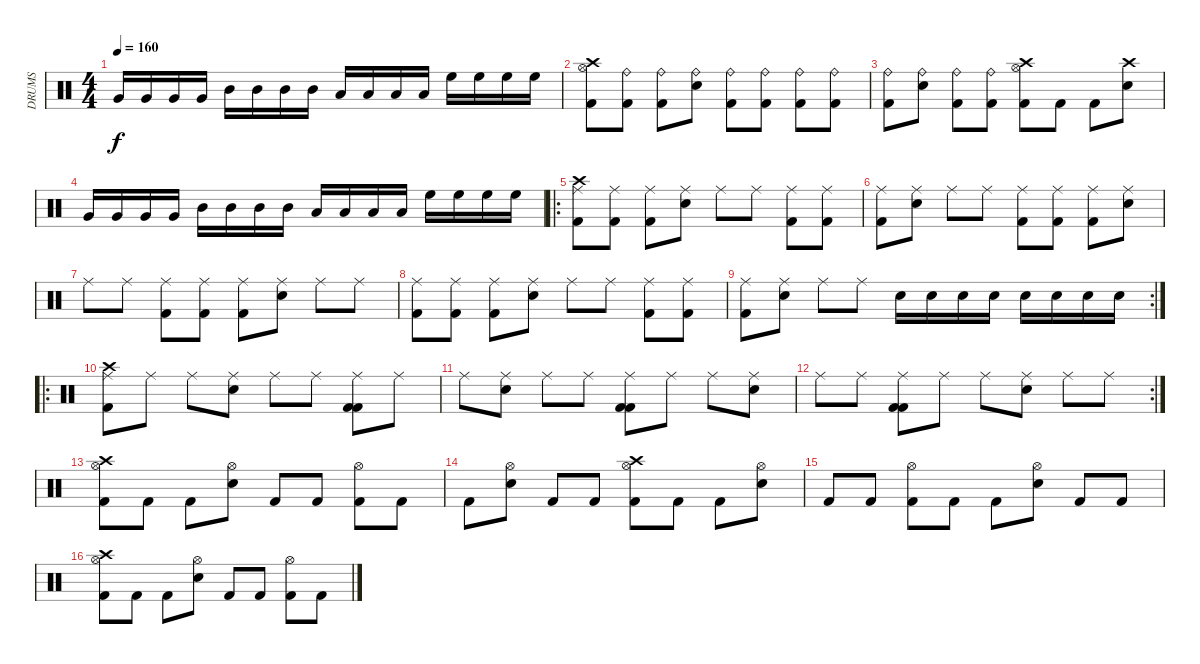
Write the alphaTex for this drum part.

\track ("DRUMS" "DRUMS") {instrument percussion}
\staff {score}
\articulation defaults
\ts (4 4)
\tempo 160
\clef neutral
\ks c "Very Low Tom (hit)".16{dy f} "Very Low Tom (hit)".16 "Very Low Tom (hit)".16 "Very Low Tom (hit)".16 "Mid Tom (hit)".16 "Mid Tom (hit)".16 "Mid Tom (hit)".16 "Mid Tom (hit)".16 "Low Tom (hit)".16 "Low Tom (hit)".16 "Low Tom (hit)".16 "Low Tom (hit)".16 "High Floor Tom (hit)".16 "High Floor Tom (hit)".16 "High Floor Tom (hit)".16 "High Floor Tom (hit)".16
|
("Crash high (hit)" "Kick (hit) 2" "Hi-Hat (open)").8 ("Ride (bell)" "Kick (hit) 2").8 ("Ride (bell)" "Kick (hit) 2").8 ("Ride (bell)" "Snare (hit) 2").8 ("Ride (bell)" "Kick (hit) 2").8 ("Ride (bell)" "Kick (hit) 2").8 ("Ride (bell)" "Kick (hit) 2").8 ("Ride (bell)" "Kick (hit) 2").8 |
("Ride (bell)" "Kick (hit) 2").8 ("Ride (bell)" "Snare (hit) 2").8 ("Ride (bell)" "Kick (hit) 2").8 ("Ride (bell)" "Kick (hit) 2").8 ("Crash high (hit)" "Hi-Hat (open)" "Kick (hit) 2").8 "Kick (hit) 2".8 "Kick (hit) 2".8 ("Crash high (hit)" "Snare (hit) 2").8 |
"Very Low Tom (hit)".16 "Very Low Tom (hit)".16 "Very Low Tom (hit)".16 "Very Low Tom (hit)".16 "Mid Tom (hit)".16 "Mid Tom (hit)".16 "Mid Tom (hit)".16 "Mid Tom (hit)".16 "Low Tom (hit)".16 "Low Tom (hit)".16 "Low Tom (hit)".16 "Low Tom (hit)".16 "High Floor Tom (hit)".16 "High Floor Tom (hit)".16 "High Floor Tom (hit)".16 "High Floor Tom (hit)".16 |
\ro
("Crash high (hit)" "Kick (hit) 2" "Ride (middle)").8 ("Kick (hit) 2" "Ride (middle)").8 ("Kick (hit) 2" "Ride (middle)").8 ("Snare (hit) 2" "Ride (middle)").8 "Ride (middle)".8 "Ride (middle)".8 ("Kick (hit) 2" "Ride (middle)").8 ("Kick (hit) 2" "Ride (middle)").8 |
("Kick (hit) 2" "Ride (middle)").8 ("Snare (hit) 2" "Ride (middle)").8 "Ride (middle)".8 "Ride (middle)".8 ("Kick (hit) 2" "Ride (middle)").8 ("Kick (hit) 2" "Ride (middle)").8 ("Kick (hit) 2" "Ride (middle)").8 ("Snare (hit) 2" "Ride (middle)").8 |
"Ride (middle)".8 "Ride (middle)".8 ("Kick (hit) 2" "Ride (middle)").8 ("Kick (hit) 2" "Ride (middle)").8 ("Kick (hit) 2" "Ride (middle)").8 ("Snare (hit) 2" "Ride (middle)").8 "Ride (middle)".8 "Ride (middle)".8 |
("Kick (hit) 2" "Ride (middle)").8 ("Kick (hit) 2" "Ride (middle)").8 ("Kick (hit) 2" "Ride (middle)").8 ("Snare (hit) 2" "Ride (middle)").8 "Ride (middle)".8 "Ride (middle)".8 ("Kick (hit) 2" "Ride (middle)").8 ("Kick (hit) 2" "Ride (middle)").8 |
\rc 2
("Kick (hit) 2" "Ride (middle)").8 ("Snare (hit) 2" "Ride (middle)").8 "Ride (middle)".8 "Ride (middle)".8 "Snare (hit) 2".16 "Snare (hit) 2".16 "Snare (hit) 2".16 "Snare (hit) 2".16 "Snare (hit) 2".16 "Snare (hit) 2".16 "Snare (hit) 2".16 "Snare (hit) 2".16 |
\ro
("Crash high (hit)" "Kick (hit) 2" "Ride (middle)").8 "Ride (middle)".8 "Ride (middle)".8 ("Snare (hit) 2" "Ride (middle)").8 "Ride (middle)".8 "Ride (middle)".8 ("Kick (hit) 2" "Kick (hit) 2" "Ride (middle)").8 "Ride (middle)".8 |
"Ride (middle)".8 ("Snare (hit) 2" "Ride (middle)").8 "Ride (middle)".8 "Ride (middle)".8 ("Kick (hit) 2" "Kick (hit) 2" "Ride (middle)").8 "Ride (middle)".8 "Ride (middle)".8 ("Snare (hit) 2" "Ride (middle)").8 |
\rc 2 "Ride (middle)".8 "Ride (middle)".8
("Kick (hit) 2" "Kick (hit) 2" "Ride (middle)").8 "Ride (middle)".8 "Ride (middle)".8 ("Snare (hit) 2" "Ride (middle)").8 "Ride (middle)".8 "Ride (middle)".8 |
("Crash high (hit)" "Kick (hit) 2" "Hi-Hat (open)").8 "Kick (hit) 2".8 "Kick (hit) 2".8 ("Hi-Hat (open)" "Snare (hit) 2").8 "Kick (hit) 2".8 "Kick (hit) 2".8 ("Hi-Hat (open)" "Kick (hit) 2").8 "Kick (hit) 2".8 |
"Kick (hit) 2".8 ("Hi-Hat (open)" "Snare (hit) 2").8 "Kick (hit) 2".8 "Kick (hit) 2".8 ("Crash high (hit)" "Hi-Hat (open)" "Kick (hit) 2").8 "Kick (hit) 2".8 "Kick (hit) 2".8 ("Hi-Hat (open)" "Snare (hit) 2").8 |
"Kick (hit) 2".8 "Kick (hit) 2".8 ("Hi-Hat (open)" "Kick (hit) 2").8 "Kick (hit) 2".8 "Kick (hit) 2".8 ("Hi-Hat (open)" "Snare (hit) 2").8 "Kick (hit) 2".8 "Kick (hit) 2".8 |
("Crash high (hit)" "Kick (hit) 2" "Hi-Hat (open)").8 "Kick (hit) 2".8 "Kick (hit) 2".8 ("Hi-Hat (open)" "Snare (hit) 2").8 "Kick (hit) 2".8 "Kick (hit) 2".8 ("Hi-Hat (open)" "Kick (hit) 2").8 "Kick (hit) 2".8
